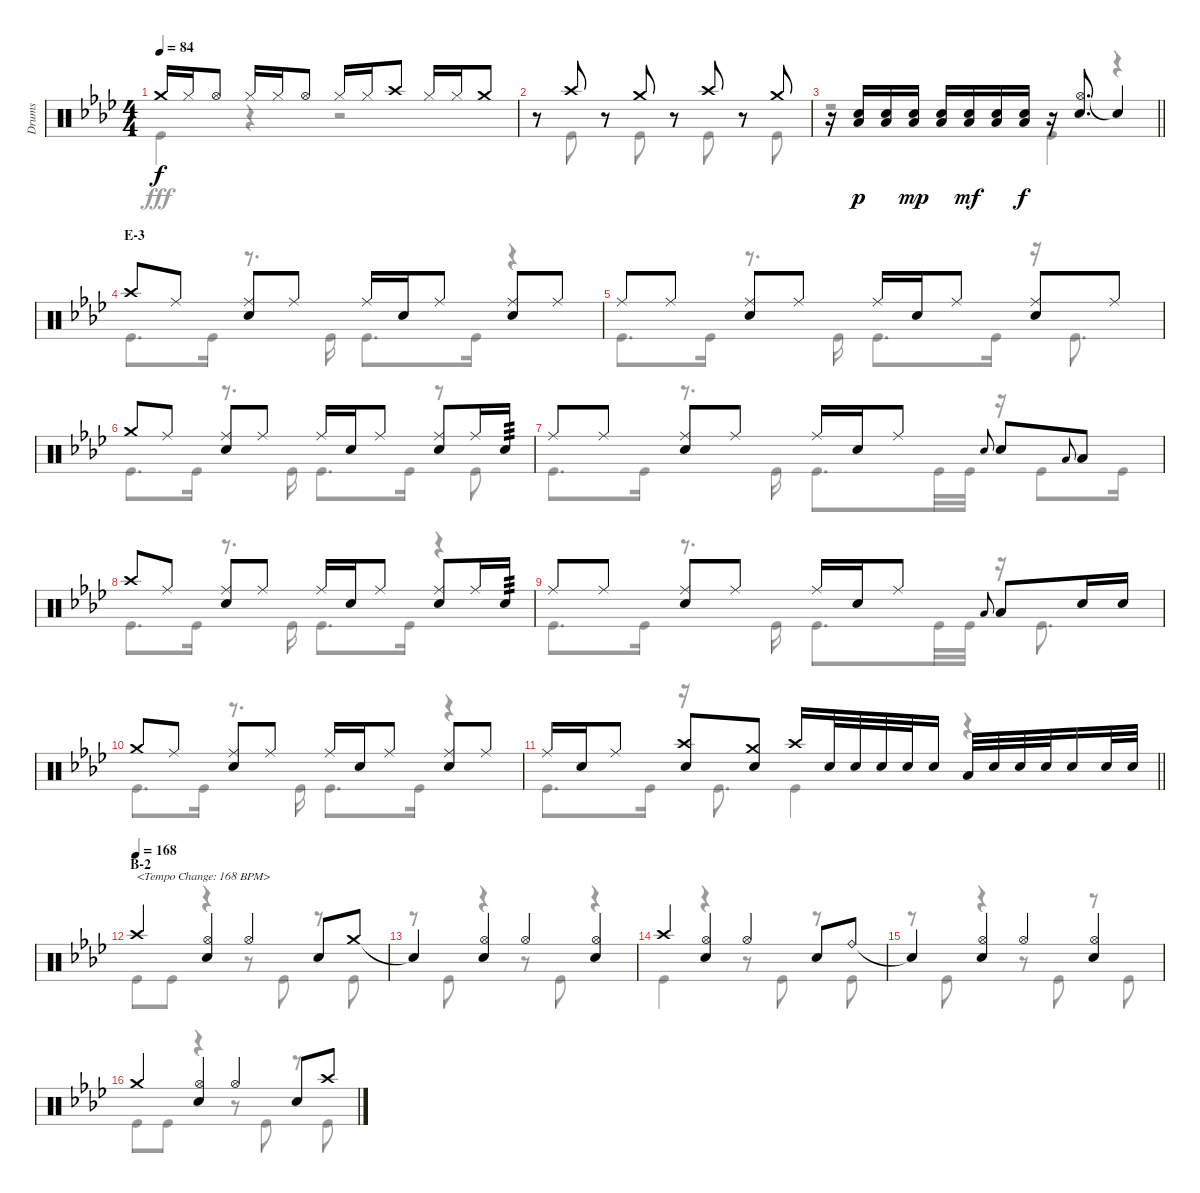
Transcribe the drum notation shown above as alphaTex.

\track ("Drums" "Drums") {instrument percussion}
\staff {score}
\articulation defaults
\voice
\ts (4 4)
\tempo 84
\clef neutral
\ks ab "Crash medium (hit)".16{dy f} "Hi-Hat (closed)".16 "Hi-Hat (open)".8 "Hi-Hat (closed)".16 "Hi-Hat (closed)".16 "Hi-Hat (open)".8 "Hi-Hat (closed)".16 "Hi-Hat (closed)".16 "Crash high (hit)".8 "Hi-Hat (closed)".16 "Hi-Hat (closed)".16 "Crash medium (hit)".8
|
r.8 "Crash high (hit)".8 r.8 "Crash medium (hit)".8 r.8 "Crash high (hit)".8 r.8 "Crash medium (hit)".8 |
\barLineRight lightlight
r.16 ("Snare (hit) 2" "Low Tom (hit)").16{dy p} ("Snare (hit) 2" "Low Tom (hit)").16 ("Snare (hit) 2" "Low Tom (hit)").16{dy mp} ("Snare (hit) 2" "Low Tom (hit)").16 ("Snare (hit) 2" "Low Tom (hit)").16{dy mf} ("Snare (hit) 2" "Low Tom (hit)").16 ("Snare (hit) 2" "Low Tom (hit)").16{dy f} r.16 ("Hi-Hat (open)" "Snare (hit) 2").8{d} "Snare (hit)"{t}.4 |
\section ("" "E-3")
"Crash high (hit)".8 "Ride (middle)".8 ("Ride (middle)" "Snare (hit) 2").8 "Ride (middle)".8 "Ride (middle)".16 "Snare (hit) 2".16 "Ride (middle)".8 ("Ride (middle)" "Snare (hit) 2").8 "Ride (middle)".8 |
"Ride (middle)".8 "Ride (middle)".8 ("Ride (middle)" "Snare (hit) 2").8 "Ride (middle)".8 "Ride (middle)".16 "Snare (hit) 2".16 "Ride (middle)".8 ("Ride (middle)" "Snare (hit) 2").8 "Ride (middle)".8 |
"Crash medium (hit)".8 "Ride (middle)".8 ("Ride (middle)" "Snare (hit) 2").8 "Ride (middle)".8 "Ride (middle)".16 "Snare (hit) 2".16 "Ride (middle)".8 ("Ride (middle)" "Snare (hit) 2").8 "Ride (middle)".16 "Snare (hit) 2".16{tp 3} |
"Ride (middle)".8 "Ride (middle)".8 ("Ride (middle)" "Snare (hit) 2").8 "Ride (middle)".8 "Ride (middle)".16 "Snare (hit) 2".16 "Ride (middle)".8 "Snare (hit) 2".8{gr onbeat} "Snare (hit) 2".8 "Low Tom (hit)".8{gr onbeat} "Low Tom (hit)".8 |
"Crash high (hit)".8 "Ride (middle)".8 ("Ride (middle)" "Snare (hit) 2").8 "Ride (middle)".8 "Ride (middle)".16 "Snare (hit) 2".16 "Ride (middle)".8 ("Ride (middle)" "Snare (hit) 2").8 "Ride (middle)".16 "Snare (hit) 2".16{tp 3} |
"Ride (middle)".8 "Ride (middle)".8 ("Ride (middle)" "Snare (hit) 2").8 "Ride (middle)".8 "Ride (middle)".16 "Snare (hit) 2".16 "Ride (middle)".8 "Low Tom (hit)".8{gr onbeat} "Low Tom (hit)".8 "Snare (hit) 2".16 "Snare (hit) 2".16 |
"Crash medium (hit)".8 "Ride (middle)".8 ("Ride (middle)" "Snare (hit) 2").8 "Ride (middle)".8 "Ride (middle)".16 "Snare (hit) 2".16 "Ride (middle)".8 ("Ride (middle)" "Snare (hit) 2").8 "Ride (middle)".8 |
\barLineRight lightlight "Ride (middle)".16 "Snare (hit) 2".16 "Ride (middle)".8
("Crash high (hit)" "Snare (hit) 2").8 ("Crash medium (hit)" "Snare (hit) 2").8 "Crash high (hit)".16 "Snare (hit) 2".32 "Snare (hit) 2".32 "Snare (hit) 2".32 "Snare (hit) 2".32 "Snare (hit) 2".16 "Low Tom (hit)".32 "Snare (hit) 2".32 "Snare (hit) 2".32 "Snare (hit) 2".32 "Snare (hit) 2".16 "Snare (hit) 2".32 "Snare (hit) 2".32 |
\section ("" "B-2")
\tempo (168)
"Crash high (hit)".4{txt "<Tempo Change: 168 BPM>"} ("Hi-Hat (open)" "Snare (hit) 2").4 "Hi-Hat (open)".4 "Snare (hit) 2".8 "Crash medium (hit)".8 |
"Snare (hit)"{t}.4 ("Hi-Hat (open)" "Snare (hit) 2").4 "Hi-Hat (open)".4 ("Hi-Hat (open)" "Snare (hit) 2").4 |
"Crash high (hit)".4 ("Hi-Hat (open)" "Snare (hit) 2").4 "Hi-Hat (open)".4 "Snare (hit) 2".8 "Ride (bell)".8 |
"Snare (hit)"{t}.4 ("Hi-Hat (open)" "Snare (hit) 2").4 "Hi-Hat (open)".4 ("Hi-Hat (open)" "Snare (hit) 2").4 |
"Crash medium (hit)".4 ("Hi-Hat (open)" "Snare (hit) 2").4 "Hi-Hat (open)".4 "Snare (hit) 2".8 "Crash high (hit)".8
\voice
\clef neutral
\ottava regular
\simile none
\ks ab "Kick (hit)".4{dy fff}
r.4 r.2 |
r.8 "Kick (hit)".8 r.8 "Kick (hit)".8 r.8 "Kick (hit)".8 r.8 "Kick (hit)".8 |
\barLineRight lightlight
r.2 "Kick (hit)".4 r.4 |
"Kick (hit)".8{d} "Kick (hit)".16 r.8{d} "Kick (hit)".16 "Kick (hit)".8{d} "Kick (hit)".16 r.4 |
"Kick (hit)".8{d} "Kick (hit)".16 r.8{d} "Kick (hit)".16 "Kick (hit)".8{d} "Kick (hit)".16 r.16 "Kick (hit)".8{d} |
"Kick (hit)".8{d} "Kick (hit)".16 r.8{d} "Kick (hit)".16 "Kick (hit)".8{d} "Kick (hit)".16 r.8 "Kick (hit)".8 |
"Kick (hit)".8{d} "Kick (hit)".16 r.8{d} "Kick (hit)".16 "Kick (hit)".8{d} "Kick (hit)".32 "Kick (hit)".32 r.16 "Kick (hit)".8 "Kick (hit)".16 |
"Kick (hit)".8{d} "Kick (hit)".16 r.8{d} "Kick (hit)".16 "Kick (hit)".8{d} "Kick (hit)".16 r.4 |
"Kick (hit)".8{d} "Kick (hit)".16 r.8{d} "Kick (hit)".16 "Kick (hit)".8{d} "Kick (hit)".32 "Kick (hit)".32 r.16 "Kick (hit)".8{d} |
"Kick (hit)".8{d} "Kick (hit)".16 r.8{d} "Kick (hit)".16 "Kick (hit)".8{d} "Kick (hit)".16 r.4 |
\barLineRight lightlight "Kick (hit)".8{d} "Kick (hit)".16
r.16 "Kick (hit)".8{d} "Kick (hit)".4 r.4 |
"Kick (hit)".8 "Kick (hit)".8 r.4 r.8 "Kick (hit)".8 r.8 "Kick (hit)".8 |
r.8 "Kick (hit)".8 r.4 r.8 "Kick (hit)".8 r.4 |
"Kick (hit)".4 r.4 r.8 "Kick (hit)".8 r.8 "Kick (hit)".8 |
r.8 "Kick (hit)".8 r.4 r.8 "Kick (hit)".8 r.8 "Kick (hit)".8 |
"Kick (hit)".8 "Kick (hit)".8 r.4 r.8 "Kick (hit)".8 r.8 "Kick (hit)".8
